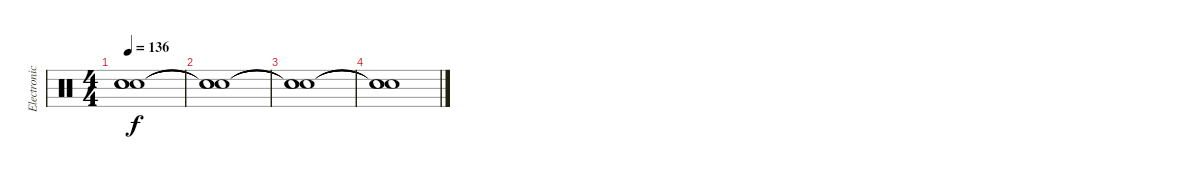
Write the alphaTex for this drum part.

\track ("Electronic Drums" "Electronic") {instrument percussion}
\staff {score}
\articulation defaults
\ts (4 4)
\tempo 136
\clef neutral
\ks c
("Snare (hit)"{t} "Snare (hit)"{t} "Snare (hit)"{t}).1{dy f} |
("Snare (hit)"{t} "Snare (hit)"{t} "Snare (hit)"{t}).1 |
("Snare (hit)"{t} "Snare (hit)"{t} "Snare (hit)"{t}).1 |
("Snare (hit)"{t} "Snare (hit)"{t} "Snare (hit)"{t}).1
